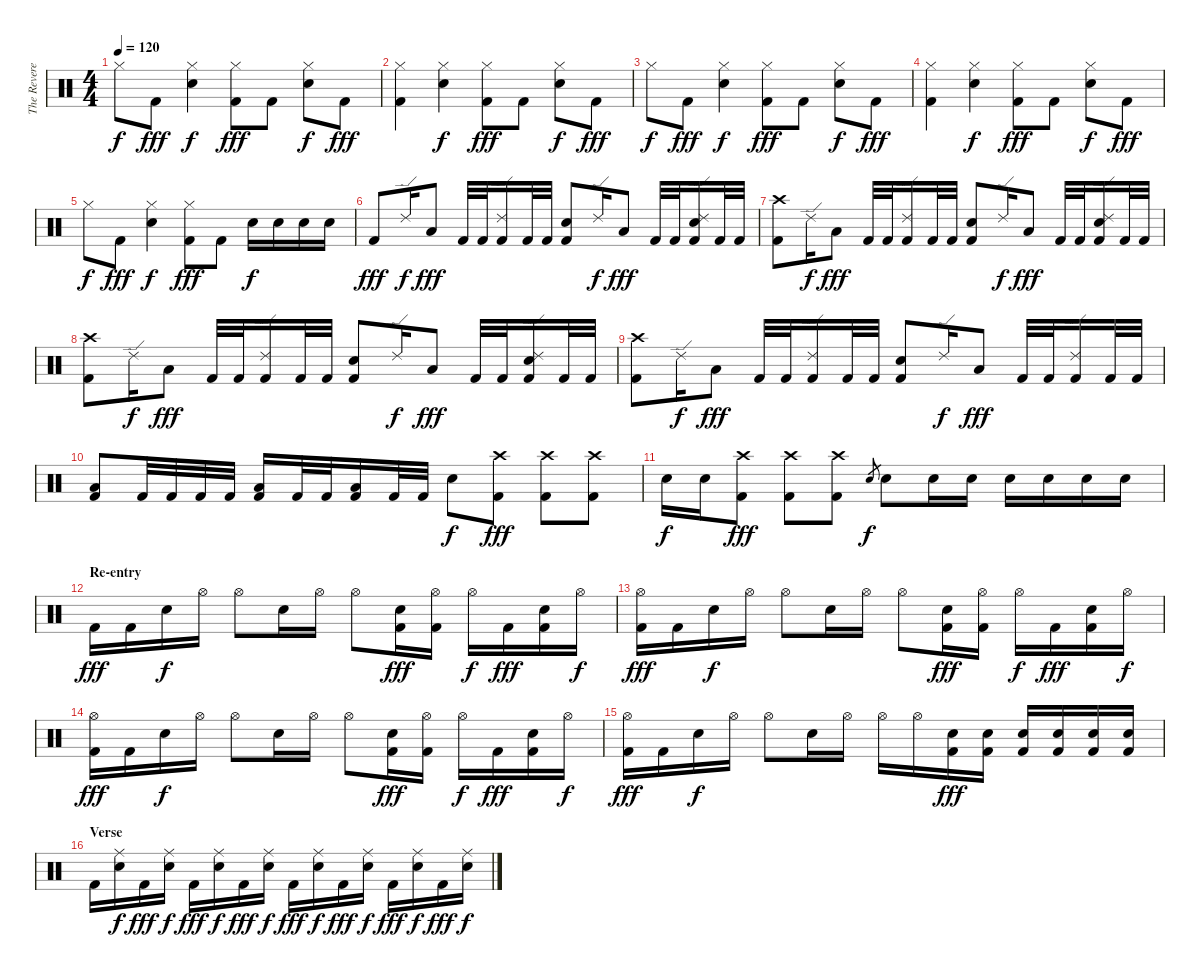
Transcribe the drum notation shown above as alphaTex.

\track ("The Reverend" "The Revere") {instrument percussion}
\staff {score}
\articulation defaults
\ts (4 4)
\tempo 120
\clef neutral
\ks c "Hi-Hat (closed)".8{dy f} "Kick (hit) 2".8{dy fff}
("Hi-Hat (closed)" "Electric Snare (hit)").4{dy f} ("Hi-Hat (closed)" "Kick (hit) 2").8{dy fff} "Kick (hit) 2".8 ("Hi-Hat (closed)" "Electric Snare (hit)").8{dy f} "Kick (hit) 2".8{dy fff} |
("Hi-Hat (closed)" "Kick (hit) 2").4 ("Hi-Hat (closed)" "Electric Snare (hit)").4{dy f} ("Hi-Hat (closed)" "Kick (hit) 2").8{dy fff} "Kick (hit) 2".8 ("Hi-Hat (closed)" "Electric Snare (hit)").8{dy f} "Kick (hit) 2".8{dy fff} |
"Hi-Hat (closed)".8{dy f} "Kick (hit) 2".8{dy fff} ("Hi-Hat (closed)" "Electric Snare (hit)").4{dy f} ("Hi-Hat (closed)" "Kick (hit) 2").8{dy fff} "Kick (hit) 2".8 ("Hi-Hat (closed)" "Electric Snare (hit)").8{dy f} "Kick (hit) 2".8{dy fff} |
("Hi-Hat (closed)" "Kick (hit) 2").4 ("Hi-Hat (closed)" "Electric Snare (hit)").4{dy f} ("Hi-Hat (closed)" "Kick (hit) 2").8{dy fff} "Kick (hit) 2".8 ("Hi-Hat (closed)" "Electric Snare (hit)").8{dy f} "Kick (hit) 2".8{dy fff} |
"Hi-Hat (closed)".8{dy f} "Kick (hit) 2".8{dy fff} ("Hi-Hat (closed)" "Electric Snare (hit)").4{dy f} ("Hi-Hat (closed)" "Kick (hit) 2").8{dy fff} "Kick (hit) 2".8 "Electric Snare (hit)".16{dy f} "Electric Snare (hit)".16 "Electric Snare (hit)".16 "Electric Snare (hit)".16 |
"Kick (hit) 2".8{dy fff} "Ride (edge) 2".16{dy f} "Low Tom (hit)".8{dy fff} "Kick (hit) 2".32 "Kick (hit) 2".32 ("Ride (edge) 2" "Kick (hit) 2").16 "Kick (hit) 2".32 "Kick (hit) 2".32 ("Electric Snare (hit)" "Kick (hit) 2").8 "Ride (edge) 2".16{dy f} "Low Tom (hit)".8{dy fff} "Kick (hit) 2".32 "Kick (hit) 2".32 ("Ride (edge) 2" "Electric Snare (hit)" "Kick (hit) 2").16 "Kick (hit) 2".32 "Kick (hit) 2".32 |
("Crash high (hit)" "Kick (hit) 2").8 "Ride (edge) 2".16{dy f} "Low Tom (hit)".8{dy fff} "Kick (hit) 2".32 "Kick (hit) 2".32 ("Ride (edge) 2" "Kick (hit) 2").16 "Kick (hit) 2".32 "Kick (hit) 2".32 ("Electric Snare (hit)" "Kick (hit) 2").8 "Ride (edge) 2".16{dy f} "Low Tom (hit)".8{dy fff} "Kick (hit) 2".32 "Kick (hit) 2".32 ("Ride (edge) 2" "Electric Snare (hit)" "Kick (hit) 2").16 "Kick (hit) 2".32 "Kick (hit) 2".32 |
("Crash high (hit)" "Kick (hit) 2").8 "Ride (edge) 2".16{dy f} "Low Tom (hit)".8{dy fff} "Kick (hit) 2".32 "Kick (hit) 2".32 ("Ride (edge) 2" "Kick (hit) 2").16 "Kick (hit) 2".32 "Kick (hit) 2".32 ("Electric Snare (hit)" "Kick (hit) 2").8 "Ride (edge) 2".16{dy f} "Low Tom (hit)".8{dy fff} "Kick (hit) 2".32 "Kick (hit) 2".32 ("Ride (edge) 2" "Electric Snare (hit)" "Kick (hit) 2").16 "Kick (hit) 2".32 "Kick (hit) 2".32 |
("Crash high (hit)" "Kick (hit) 2").8 "Ride (edge) 2".16{dy f} "Low Tom (hit)".8{dy fff} "Kick (hit) 2".32 "Kick (hit) 2".32 ("Ride (edge) 2" "Kick (hit) 2").16 "Kick (hit) 2".32 "Kick (hit) 2".32 ("Electric Snare (hit)" "Kick (hit) 2").8 "Ride (edge) 2".16{dy f} "Low Tom (hit)".8{dy fff} "Kick (hit) 2".32 "Kick (hit) 2".32 ("Ride (edge) 2" "Kick (hit) 2").16 "Kick (hit) 2".32 "Kick (hit) 2".32 |
("Low Tom (hit)" "Kick (hit) 2").8 "Kick (hit) 2".32 "Kick (hit) 2".32 "Kick (hit) 2".32 "Kick (hit) 2".32 ("Low Tom (hit)" "Kick (hit) 2").16 "Kick (hit) 2".32 "Kick (hit) 2".32 ("Low Tom (hit)" "Kick (hit) 2").16 "Kick (hit) 2".32 "Kick (hit) 2".32 "Electric Snare (hit)".8{dy f} ("Crash high (hit)" "Kick (hit) 2").8{dy fff} ("Crash high (hit)" "Kick (hit) 2").8 ("Crash high (hit)" "Kick (hit) 2").8 |
"Electric Snare (hit)".16{dy f} "Electric Snare (hit)".16 ("Crash high (hit)" "Kick (hit) 2").8{dy fff} ("Crash high (hit)" "Kick (hit) 2").8 ("Crash high (hit)" "Kick (hit) 2").8 "Electric Snare (hit)".8{gr dy f} "Electric Snare (hit)".8 "Electric Snare (hit)".16 "Electric Snare (hit)".16 "Electric Snare (hit)".16 "Electric Snare (hit)".16 "Electric Snare (hit)".16 "Electric Snare (hit)".16 |
\section ("" "Re-entry")
"Kick (hit) 2".16{dy fff} "Kick (hit) 2".16 "Electric Snare (hit)".16{dy f} "Hi-Hat (open)".16 "Hi-Hat (open)".8 "Electric Snare (hit)".16 "Hi-Hat (open)".16 "Hi-Hat (open)".8 ("Electric Snare (hit)" "Kick (hit) 2").16{dy fff} ("Hi-Hat (open)" "Kick (hit) 2").16 "Hi-Hat (open)".16{dy f} "Kick (hit) 2".16{dy fff} ("Electric Snare (hit)" "Kick (hit) 2").16 "Hi-Hat (open)".16{dy f} |
("Hi-Hat (open)" "Kick (hit) 2").16{dy fff} "Kick (hit) 2".16 "Electric Snare (hit)".16{dy f} "Hi-Hat (open)".16 "Hi-Hat (open)".8 "Electric Snare (hit)".16 "Hi-Hat (open)".16 "Hi-Hat (open)".8 ("Electric Snare (hit)" "Kick (hit) 2").16{dy fff} ("Hi-Hat (open)" "Kick (hit) 2").16 "Hi-Hat (open)".16{dy f} "Kick (hit) 2".16{dy fff} ("Electric Snare (hit)" "Kick (hit) 2").16 "Hi-Hat (open)".16{dy f} |
("Hi-Hat (open)" "Kick (hit) 2").16{dy fff} "Kick (hit) 2".16 "Electric Snare (hit)".16{dy f} "Hi-Hat (open)".16 "Hi-Hat (open)".8 "Electric Snare (hit)".16 "Hi-Hat (open)".16 "Hi-Hat (open)".8 ("Electric Snare (hit)" "Kick (hit) 2").16{dy fff} ("Hi-Hat (open)" "Kick (hit) 2").16 "Hi-Hat (open)".16{dy f} "Kick (hit) 2".16{dy fff} ("Electric Snare (hit)" "Kick (hit) 2").16 "Hi-Hat (open)".16{dy f} |
("Hi-Hat (open)" "Kick (hit) 2").16{dy fff} "Kick (hit) 2".16 "Electric Snare (hit)".16{dy f} "Hi-Hat (open)".16 "Hi-Hat (open)".8 "Electric Snare (hit)".16 "Hi-Hat (open)".16 "Hi-Hat (open)".16 "Hi-Hat (open)".16 ("Electric Snare (hit)" "Kick (hit) 2").16{dy fff} ("Electric Snare (hit)" "Kick (hit) 2").16 ("Electric Snare (hit)" "Kick (hit) 2").16 ("Electric Snare (hit)" "Kick (hit) 2").16 ("Electric Snare (hit)" "Kick (hit) 2").16 ("Electric Snare (hit)" "Kick (hit) 2").16 |
\section ("" "Verse")
"Kick (hit) 2".16 ("Ride (middle)" "Electric Snare (hit)").16{dy f} "Kick (hit) 2".16{dy fff} ("Ride (middle)" "Electric Snare (hit)").16{dy f} "Kick (hit) 2".16{dy fff} ("Ride (middle)" "Electric Snare (hit)").16{dy f} "Kick (hit) 2".16{dy fff} ("Ride (middle)" "Electric Snare (hit)").16{dy f} "Kick (hit) 2".16{dy fff} ("Ride (middle)" "Electric Snare (hit)").16{dy f} "Kick (hit) 2".16{dy fff} ("Ride (middle)" "Electric Snare (hit)").16{dy f} "Kick (hit) 2".16{dy fff} ("Ride (middle)" "Electric Snare (hit)").16{dy f} "Kick (hit) 2".16{dy fff} ("Ride (middle)" "Electric Snare (hit)").16{dy f}
